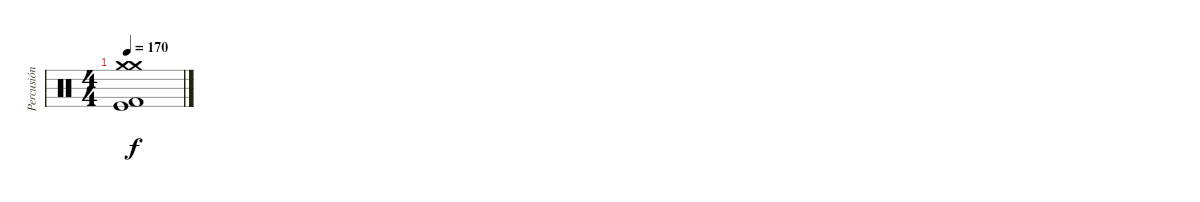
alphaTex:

\track ("Percusión" "Percusión") {instrument percussion}
\staff {score}
\articulation defaults
\ts (4 4)
\tempo 170
\clef neutral
\ks c
("Crash medium (hit)" "Crash medium (hit)" "Kick (hit) 2" "Kick (hit)").1{dy f}
